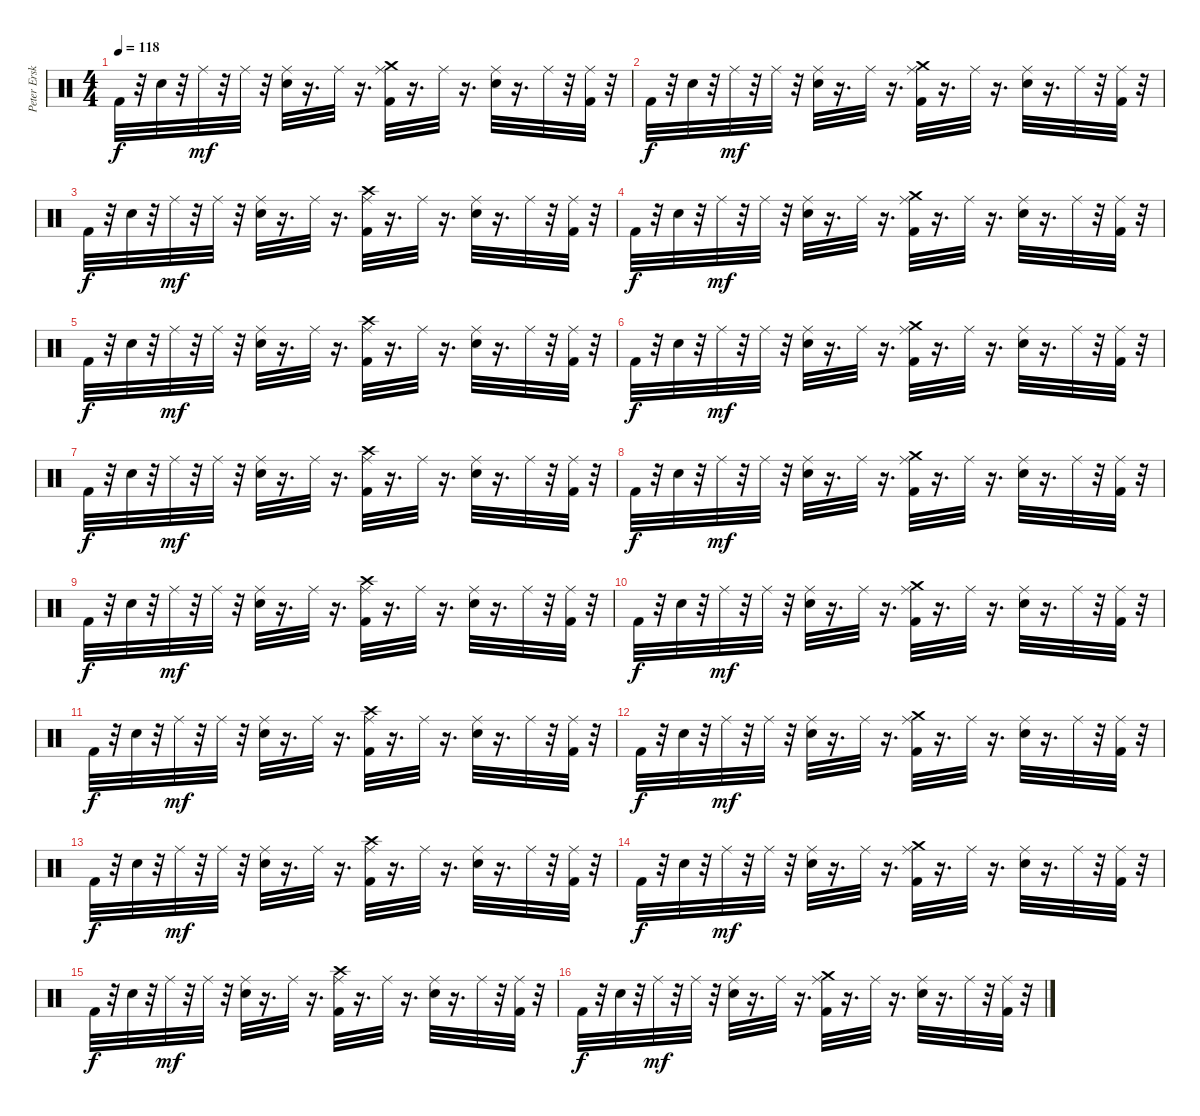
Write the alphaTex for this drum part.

\track ("Peter Erskine" "Peter Ersk") {instrument percussion}
\staff {score}
\articulation defaults
\ts (4 4)
\tempo 118
\clef neutral
\ks c "Kick (hit) 2".32{dy f}
r.32 "Electric Snare (hit)".32 r.32 "Ride (middle)".32{dy mf} r.32 "Ride (middle)".32 r.32 ("Electric Snare (hit)" "Ride (middle)").32 r.16{d} "Ride (middle)".32 r.16{d} ("Crash medium (hit)" "Kick (hit) 2" "Ride (middle)").32 r.16{d} "Ride (middle)".32 r.16{d} ("Electric Snare (hit)" "Ride (middle)").32 r.16{d} "Ride (middle)".32 r.32 ("Kick (hit) 2" "Ride (middle)").32 r.32 |
"Kick (hit) 2".32{dy f} r.32 "Electric Snare (hit)".32 r.32 "Ride (middle)".32{dy mf} r.32 "Ride (middle)".32 r.32 ("Electric Snare (hit)" "Ride (middle)").32 r.16{d} "Ride (middle)".32 r.16{d} ("Kick (hit) 2" "Crash medium (hit)" "Ride (middle)").32 r.16{d} "Ride (middle)".32 r.16{d} ("Electric Snare (hit)" "Ride (middle)").32 r.16{d} "Ride (middle)".32 r.32 ("Kick (hit) 2" "Ride (middle)").32 r.32 |
"Kick (hit) 2".32{dy f} r.32 "Electric Snare (hit)".32 r.32 "Ride (middle)".32{dy mf} r.32 "Ride (middle)".32 r.32 ("Electric Snare (hit)" "Ride (middle)").32 r.16{d} "Ride (middle)".32 r.16{d} ("Crash high (hit)" "Kick (hit) 2" "Ride (middle)").32 r.16{d} "Ride (middle)".32 r.16{d} ("Electric Snare (hit)" "Ride (middle)").32 r.16{d} "Ride (middle)".32 r.32 ("Kick (hit) 2" "Ride (middle)").32 r.32 |
"Kick (hit) 2".32{dy f} r.32 "Electric Snare (hit)".32 r.32 "Ride (middle)".32{dy mf} r.32 "Ride (middle)".32 r.32 ("Electric Snare (hit)" "Ride (middle)").32 r.16{d} "Ride (middle)".32 r.16{d} ("Kick (hit) 2" "Crash medium (hit)" "Ride (middle)").32 r.16{d} "Ride (middle)".32 r.16{d} ("Electric Snare (hit)" "Ride (middle)").32 r.16{d} "Ride (middle)".32 r.32 ("Kick (hit) 2" "Ride (middle)").32 r.32 |
"Kick (hit) 2".32{dy f} r.32 "Electric Snare (hit)".32 r.32 "Ride (middle)".32{dy mf} r.32 "Ride (middle)".32 r.32 ("Electric Snare (hit)" "Ride (middle)").32 r.16{d} "Ride (middle)".32 r.16{d} ("Crash high (hit)" "Kick (hit) 2" "Ride (middle)").32 r.16{d} "Ride (middle)".32 r.16{d} ("Electric Snare (hit)" "Ride (middle)").32 r.16{d} "Ride (middle)".32 r.32 ("Kick (hit) 2" "Ride (middle)").32 r.32 |
"Kick (hit) 2".32{dy f} r.32 "Electric Snare (hit)".32 r.32 "Ride (middle)".32{dy mf} r.32 "Ride (middle)".32 r.32 ("Electric Snare (hit)" "Ride (middle)").32 r.16{d} "Ride (middle)".32 r.16{d} ("Crash medium (hit)" "Kick (hit) 2" "Ride (middle)").32 r.16{d} "Ride (middle)".32 r.16{d} ("Electric Snare (hit)" "Ride (middle)").32 r.16{d} "Ride (middle)".32 r.32 ("Kick (hit) 2" "Ride (middle)").32 r.32 |
"Kick (hit) 2".32{dy f} r.32 "Electric Snare (hit)".32 r.32 "Ride (middle)".32{dy mf} r.32 "Ride (middle)".32 r.32 ("Electric Snare (hit)" "Ride (middle)").32 r.16{d} "Ride (middle)".32 r.16{d} ("Crash high (hit)" "Kick (hit) 2" "Ride (middle)").32 r.16{d} "Ride (middle)".32 r.16{d} ("Electric Snare (hit)" "Ride (middle)").32 r.16{d} "Ride (middle)".32 r.32 ("Kick (hit) 2" "Ride (middle)").32 r.32 |
"Kick (hit) 2".32{dy f} r.32 "Electric Snare (hit)".32 r.32 "Ride (middle)".32{dy mf} r.32 "Ride (middle)".32 r.32 ("Electric Snare (hit)" "Ride (middle)").32 r.16{d} "Ride (middle)".32 r.16{d} ("Crash medium (hit)" "Kick (hit) 2" "Ride (middle)").32 r.16{d} "Ride (middle)".32 r.16{d} ("Electric Snare (hit)" "Ride (middle)").32 r.16{d} "Ride (middle)".32 r.32 ("Kick (hit) 2" "Ride (middle)").32 r.32 |
"Kick (hit) 2".32{dy f} r.32 "Electric Snare (hit)".32 r.32 "Ride (middle)".32{dy mf} r.32 "Ride (middle)".32 r.32 ("Electric Snare (hit)" "Ride (middle)").32 r.16{d} "Ride (middle)".32 r.16{d} ("Crash high (hit)" "Kick (hit) 2" "Ride (middle)").32 r.16{d} "Ride (middle)".32 r.16{d} ("Electric Snare (hit)" "Ride (middle)").32 r.16{d} "Ride (middle)".32 r.32 ("Kick (hit) 2" "Ride (middle)").32 r.32 |
"Kick (hit) 2".32{dy f} r.32 "Electric Snare (hit)".32 r.32 "Ride (middle)".32{dy mf} r.32 "Ride (middle)".32 r.32 ("Electric Snare (hit)" "Ride (middle)").32 r.16{d} "Ride (middle)".32 r.16{d} ("Crash medium (hit)" "Kick (hit) 2" "Ride (middle)").32 r.16{d} "Ride (middle)".32 r.16{d} ("Electric Snare (hit)" "Ride (middle)").32 r.16{d} "Ride (middle)".32 r.32 ("Kick (hit) 2" "Ride (middle)").32 r.32 |
"Kick (hit) 2".32{dy f} r.32 "Electric Snare (hit)".32 r.32 "Ride (middle)".32{dy mf} r.32 "Ride (middle)".32 r.32 ("Electric Snare (hit)" "Ride (middle)").32 r.16{d} "Ride (middle)".32 r.16{d} ("Crash high (hit)" "Kick (hit) 2" "Ride (middle)").32 r.16{d} "Ride (middle)".32 r.16{d} ("Electric Snare (hit)" "Ride (middle)").32 r.16{d} "Ride (middle)".32 r.32 ("Kick (hit) 2" "Ride (middle)").32 r.32 |
"Kick (hit) 2".32{dy f} r.32 "Electric Snare (hit)".32 r.32 "Ride (middle)".32{dy mf} r.32 "Ride (middle)".32 r.32 ("Electric Snare (hit)" "Ride (middle)").32 r.16{d} "Ride (middle)".32 r.16{d} ("Crash medium (hit)" "Kick (hit) 2" "Ride (middle)").32 r.16{d} "Ride (middle)".32 r.16{d} ("Electric Snare (hit)" "Ride (middle)").32 r.16{d} "Ride (middle)".32 r.32 ("Kick (hit) 2" "Ride (middle)").32 r.32 |
"Kick (hit) 2".32{dy f} r.32 "Electric Snare (hit)".32 r.32 "Ride (middle)".32{dy mf} r.32 "Ride (middle)".32 r.32 ("Electric Snare (hit)" "Ride (middle)").32 r.16{d} "Ride (middle)".32 r.16{d} ("Crash high (hit)" "Kick (hit) 2" "Ride (middle)").32 r.16{d} "Ride (middle)".32 r.16{d} ("Electric Snare (hit)" "Ride (middle)").32 r.16{d} "Ride (middle)".32 r.32 ("Kick (hit) 2" "Ride (middle)").32 r.32 |
"Kick (hit) 2".32{dy f} r.32 "Electric Snare (hit)".32 r.32 "Ride (middle)".32{dy mf} r.32 "Ride (middle)".32 r.32 ("Electric Snare (hit)" "Ride (middle)").32 r.16{d} "Ride (middle)".32 r.16{d} ("Crash medium (hit)" "Kick (hit) 2" "Ride (middle)").32 r.16{d} "Ride (middle)".32 r.16{d} ("Electric Snare (hit)" "Ride (middle)").32 r.16{d} "Ride (middle)".32 r.32 ("Kick (hit) 2" "Ride (middle)").32 r.32 |
"Kick (hit) 2".32{dy f} r.32 "Electric Snare (hit)".32 r.32 "Ride (middle)".32{dy mf} r.32 "Ride (middle)".32 r.32 ("Electric Snare (hit)" "Ride (middle)").32 r.16{d} "Ride (middle)".32 r.16{d} ("Crash high (hit)" "Kick (hit) 2" "Ride (middle)").32 r.16{d} "Ride (middle)".32 r.16{d} ("Electric Snare (hit)" "Ride (middle)").32 r.16{d} "Ride (middle)".32 r.32 ("Kick (hit) 2" "Ride (middle)").32 r.32 |
"Kick (hit) 2".32{dy f} r.32 "Electric Snare (hit)".32 r.32 "Ride (middle)".32{dy mf} r.32 "Ride (middle)".32 r.32 ("Electric Snare (hit)" "Ride (middle)").32 r.16{d} "Ride (middle)".32 r.16{d} ("Crash medium (hit)" "Kick (hit) 2" "Ride (middle)").32 r.16{d} "Ride (middle)".32 r.16{d} ("Electric Snare (hit)" "Ride (middle)").32 r.16{d} "Ride (middle)".32 r.32 ("Kick (hit) 2" "Ride (middle)").32 r.32
